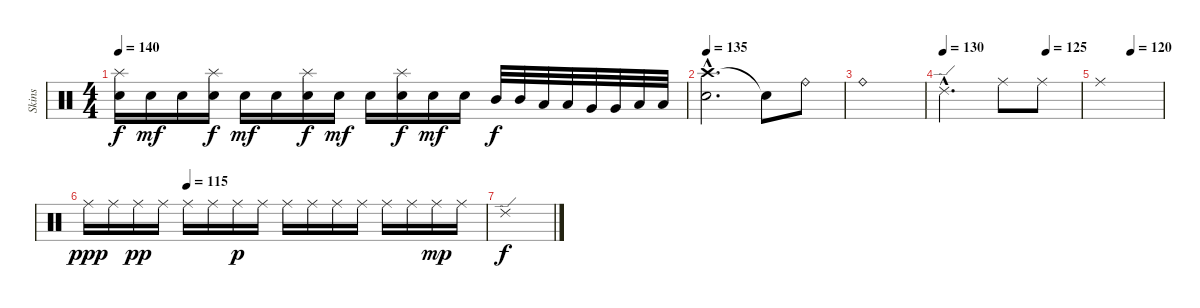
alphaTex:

\track ("Skins" "Skins") {instrument percussion}
\staff {score}
\articulation defaults
\ts (4 4)
\tempo 140
\clef neutral
\ks c
("Splash (hit)" "Snare (hit) 2").16{dy f} "Electric Snare (hit)".16{dy mf} "Electric Snare (hit)".16 ("Splash (hit)" "Snare (hit) 2").16{dy f} "Electric Snare (hit)".16{dy mf} "Electric Snare (hit)".16 ("Splash (hit)" "Snare (hit) 2").16{dy f} "Electric Snare (hit)".16{dy mf} "Electric Snare (hit)".16 ("Splash (hit)" "Snare (hit) 2").16{dy f} "Electric Snare (hit)".16{dy mf} "Electric Snare (hit)".16 "Mid Tom (hit)".32{dy f} "Mid Tom (hit)".32 "Low Tom (hit)".32 "Low Tom (hit)".32 "Very Low Tom (hit)".32 "Very Low Tom (hit)".32 "Low Floor Tom (hit)".32 "Low Floor Tom (hit)".32 |
\tempo 135
("Crash high (hit)"{hac} "Electric Snare (hit)"{hac}).2{d} "Snare (hit)"{t}.8 "Ride (bell)".8 |
"Ride (bell)".1 |
\tempo 130
\tempo (125 0.75)
"Ride (edge) 2"{hac}.2{d} "Ride (middle)".8 "Ride (middle)".8 |
\tempo (120 0.5)
"Ride (middle)".1 |
\tempo (115 0.25)
"Ride (middle)".16{dy ppp} "Ride (middle)".16 "Ride (middle)".16{dy pp} "Ride (middle)".16 "Ride (middle)".16 "Ride (middle)".16 "Ride (middle)".16{dy p} "Ride (middle)".16 "Ride (middle)".16 "Ride (middle)".16 "Ride (middle)".16 "Ride (middle)".16 "Ride (middle)".16 "Ride (middle)".16 "Ride (middle)".16{dy mp} "Ride (middle)".16 |
"Ride (edge) 2".1{dy f}
